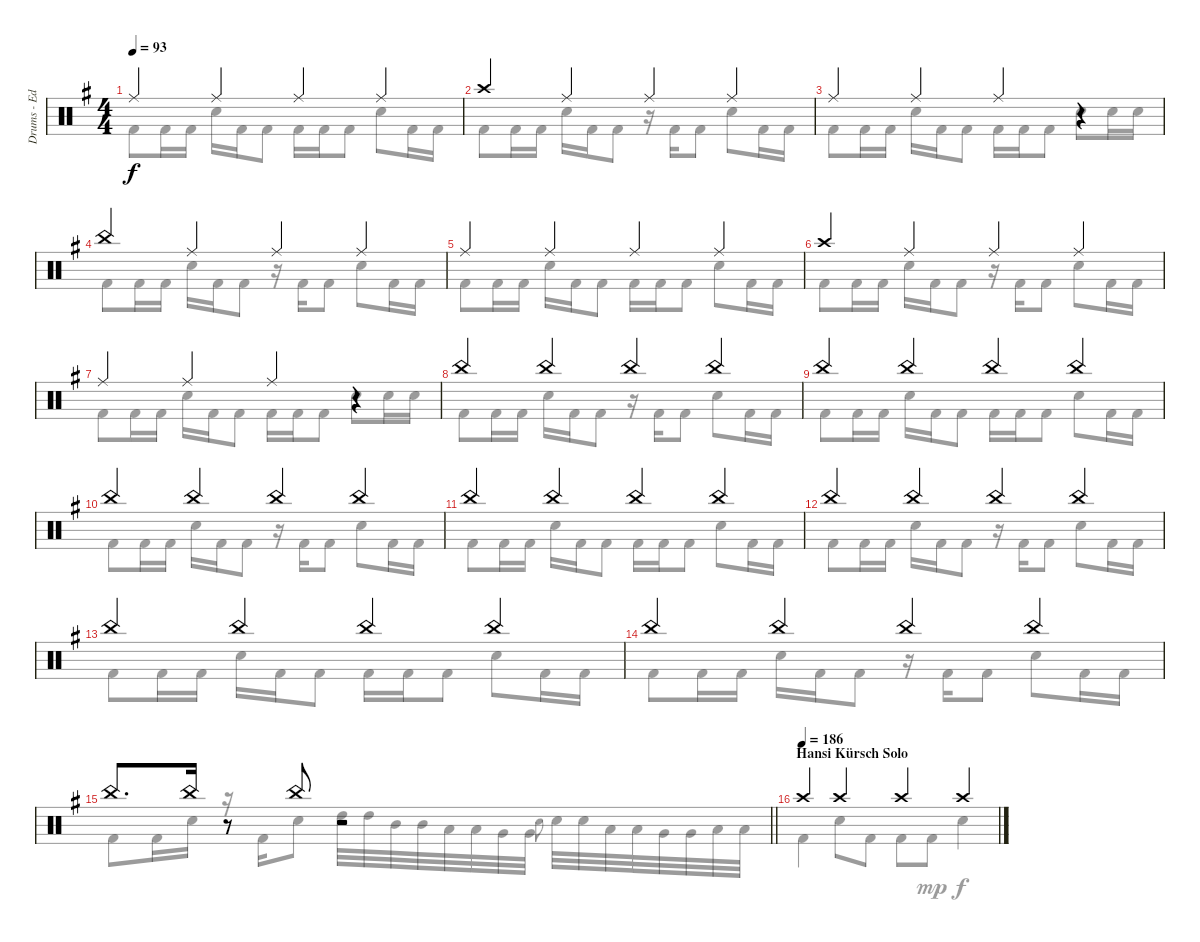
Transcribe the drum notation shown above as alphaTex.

\track ("Drums - Ed Warby" "Drums - Ed") {instrument percussion}
\staff {score}
\articulation defaults
\voice
\ts (4 4)
\tempo 93
\clef neutral
\ks eminor "Ride (middle)".4{dy f} "Ride (middle)".4 "Ride (middle)".4 "Ride (middle)".4
|
"Crash high (hit)".4 "Ride (middle)".4 "Ride (middle)".4 "Ride (middle)".4 |
"Ride (middle)".4 "Ride (middle)".4 "Ride (middle)".4 r.4 |
"China (hit)".4 "Ride (middle)".4 "Ride (middle)".4 "Ride (middle)".4 |
"Ride (middle)".4 "Ride (middle)".4 "Ride (middle)".4 "Ride (middle)".4 |
"Crash high (hit)".4 "Ride (middle)".4 "Ride (middle)".4 "Ride (middle)".4 |
"Ride (middle)".4 "Ride (middle)".4 "Ride (middle)".4 r.4 |
"China (hit)".4 "China (hit)".4 "China (hit)".4 "China (hit)".4 |
"China (hit)".4 "China (hit)".4 "China (hit)".4 "China (hit)".4 |
"China (hit)".4 "China (hit)".4 "China (hit)".4 "China (hit)".4 |
"China (hit)".4 "China (hit)".4 "China (hit)".4 "China (hit)".4 |
"China (hit)".4 "China (hit)".4 "China (hit)".4 "China (hit)".4 |
"China (hit)".4 "China (hit)".4 "China (hit)".4 "China (hit)".4 |
"China (hit)".4 "China (hit)".4 "China (hit)".4 "China (hit)".4 |
\barLineRight lightlight "China (hit)".8{d} "China (hit)".16
r.8 "China (hit)".8 r.2 |
\section ("" "Hansi Kürsch Solo")
\tempo (186)
"Crash high (hit)".4 "Crash high (hit)".4 "Crash high (hit)".4 "Crash high (hit)".4
\voice
\clef neutral
\ottava regular
\simile none
\ks eminor "Kick (hit) 2".8{dy f} "Kick (hit) 2".16 "Kick (hit) 2".16 "Snare (hit) 2".16 "Kick (hit) 2".16 "Kick (hit) 2".8 "Kick (hit) 2".16 "Kick (hit) 2".16 "Kick (hit) 2".8 "Snare (hit) 2".8 "Kick (hit) 2".16 "Kick (hit) 2".16
|
"Kick (hit) 2".8 "Kick (hit) 2".16 "Kick (hit) 2".16 "Snare (hit) 2".16 "Kick (hit) 2".16 "Kick (hit) 2".8 r.16 "Kick (hit) 2".16 "Kick (hit) 2".8 "Snare (hit) 2".8 "Kick (hit) 2".16 "Kick (hit) 2".16 |
"Kick (hit) 2".8 "Kick (hit) 2".16 "Kick (hit) 2".16 "Snare (hit) 2".16 "Kick (hit) 2".16 "Kick (hit) 2".8 "Kick (hit) 2".16 "Kick (hit) 2".16 "Kick (hit) 2".8 "Snare (hit) 2".8 "Snare (hit) 2".16 "Snare (hit) 2".16 |
"Kick (hit) 2".8 "Kick (hit) 2".16 "Kick (hit) 2".16 "Snare (hit) 2".16 "Kick (hit) 2".16 "Kick (hit) 2".8 r.16 "Kick (hit) 2".16 "Kick (hit) 2".8 "Snare (hit) 2".8 "Kick (hit) 2".16 "Kick (hit) 2".16 |
"Kick (hit) 2".8 "Kick (hit) 2".16 "Kick (hit) 2".16 "Snare (hit) 2".16 "Kick (hit) 2".16 "Kick (hit) 2".8 "Kick (hit) 2".16 "Kick (hit) 2".16 "Kick (hit) 2".8 "Snare (hit) 2".8 "Kick (hit) 2".16 "Kick (hit) 2".16 |
"Kick (hit) 2".8 "Kick (hit) 2".16 "Kick (hit) 2".16 "Snare (hit) 2".16 "Kick (hit) 2".16 "Kick (hit) 2".8 r.16 "Kick (hit) 2".16 "Kick (hit) 2".8 "Snare (hit) 2".8 "Kick (hit) 2".16 "Kick (hit) 2".16 |
"Kick (hit) 2".8 "Kick (hit) 2".16 "Kick (hit) 2".16 "Snare (hit) 2".16 "Kick (hit) 2".16 "Kick (hit) 2".8 "Kick (hit) 2".16 "Kick (hit) 2".16 "Kick (hit) 2".8 "Snare (hit) 2".8 "Snare (hit) 2".16 "Snare (hit) 2".16 |
"Kick (hit) 2".8 "Kick (hit) 2".16 "Kick (hit) 2".16 "Snare (hit) 2".16 "Kick (hit) 2".16 "Kick (hit) 2".8 r.16 "Kick (hit) 2".16 "Kick (hit) 2".8 "Snare (hit) 2".8 "Kick (hit) 2".16 "Kick (hit) 2".16 |
"Kick (hit) 2".8 "Kick (hit) 2".16 "Kick (hit) 2".16 "Snare (hit) 2".16 "Kick (hit) 2".16 "Kick (hit) 2".8 "Kick (hit) 2".16 "Kick (hit) 2".16 "Kick (hit) 2".8 "Snare (hit) 2".8 "Kick (hit) 2".16 "Kick (hit) 2".16 |
"Kick (hit) 2".8 "Kick (hit) 2".16 "Kick (hit) 2".16 "Snare (hit) 2".16 "Kick (hit) 2".16 "Kick (hit) 2".8 r.16 "Kick (hit) 2".16 "Kick (hit) 2".8 "Snare (hit) 2".8 "Kick (hit) 2".16 "Kick (hit) 2".16 |
"Kick (hit) 2".8 "Kick (hit) 2".16 "Kick (hit) 2".16 "Snare (hit) 2".16 "Kick (hit) 2".16 "Kick (hit) 2".8 "Kick (hit) 2".16 "Kick (hit) 2".16 "Kick (hit) 2".8 "Snare (hit) 2".8 "Kick (hit) 2".16 "Kick (hit) 2".16 |
"Kick (hit) 2".8 "Kick (hit) 2".16 "Kick (hit) 2".16 "Snare (hit) 2".16 "Kick (hit) 2".16 "Kick (hit) 2".8 r.16 "Kick (hit) 2".16 "Kick (hit) 2".8 "Snare (hit) 2".8 "Kick (hit) 2".16 "Kick (hit) 2".16 |
"Kick (hit) 2".8 "Kick (hit) 2".16 "Kick (hit) 2".16 "Snare (hit) 2".16 "Kick (hit) 2".16 "Kick (hit) 2".8 "Kick (hit) 2".16 "Kick (hit) 2".16 "Kick (hit) 2".8 "Snare (hit) 2".8 "Kick (hit) 2".16 "Kick (hit) 2".16 |
"Kick (hit) 2".8 "Kick (hit) 2".16 "Kick (hit) 2".16 "Snare (hit) 2".16 "Kick (hit) 2".16 "Kick (hit) 2".8 r.16 "Kick (hit) 2".16 "Kick (hit) 2".8 "Snare (hit) 2".8 "Kick (hit) 2".16 "Kick (hit) 2".16 |
\barLineRight lightlight "Kick (hit) 2".8 "Kick (hit) 2".16 "Snare (hit) 2".16
r.16 "Kick (hit) 2".16 "Snare (hit) 2".8 "High Tom (hit)".32 "High Tom (hit)".32 "Mid Tom (hit)".32 "Mid Tom (hit)".32 "Low Tom (hit)".32 "Low Tom (hit)".32 "Very Low Tom (hit)".32 "Very Low Tom (hit)".32 "Snare (hit) 2".8{gr onbeat} "Snare (hit) 2".32 "Snare (hit) 2".32 "Low Tom (hit)".32 "Low Tom (hit)".32 "Very Low Tom (hit)".32 "Very Low Tom (hit)".32 "Low Floor Tom (hit)".32 "Low Floor Tom (hit)".32 |
"Kick (hit) 2".4 "Snare (hit) 2".8 "Kick (hit) 2".8 "Kick (hit) 2".8 "Kick (hit) 2".8{dy mp} "Snare (hit) 2".4{dy f}
